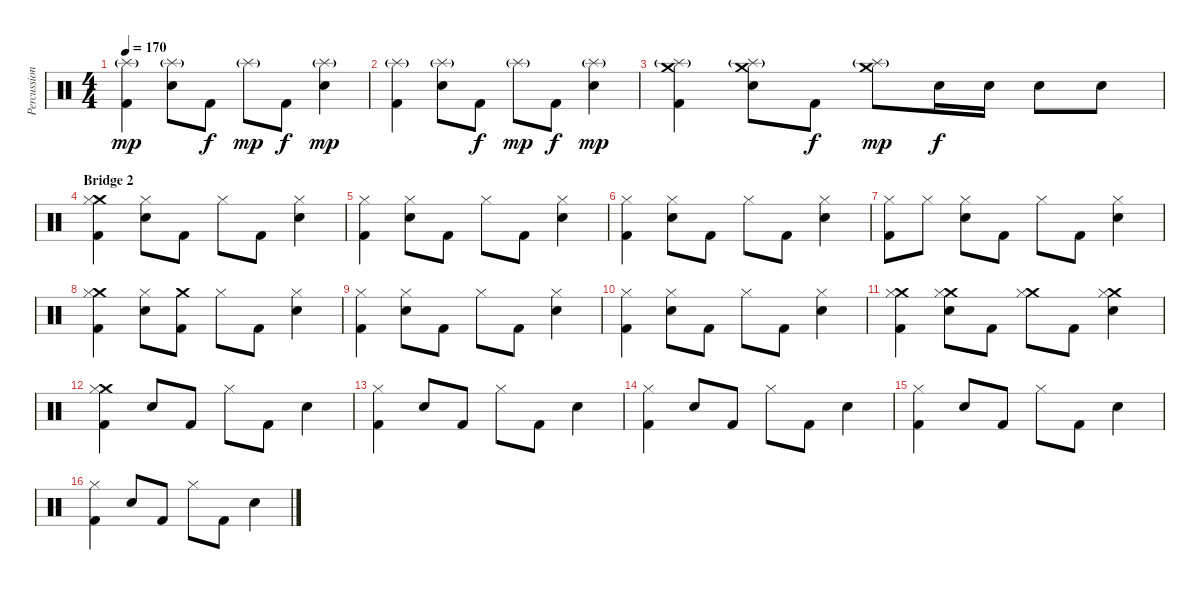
\track ("Percussions" "Percussion") {instrument percussion}
\staff {score}
\articulation defaults
\ts (4 4)
\tempo 170
\clef neutral
\ks c
("Splash (hit)"{g} "Kick (hit) 2").4{dy mp} ("Splash (hit)"{g} "Electric Snare (hit)").8 "Kick (hit) 2".8{dy f} "Splash (hit)"{g}.8{dy mp} "Kick (hit) 2".8{dy f} ("Splash (hit)"{g} "Electric Snare (hit)").4{dy mp} |
("Splash (hit)"{g} "Kick (hit) 2").4 ("Splash (hit)"{g} "Electric Snare (hit)").8 "Kick (hit) 2".8{dy f} "Splash (hit)"{g}.8{dy mp} "Kick (hit) 2".8{dy f} ("Splash (hit)"{g} "Electric Snare (hit)").4{dy mp} |
("Crash medium (hit)" "Splash (hit)"{g} "Kick (hit) 2").4 ("Crash medium (hit)" "Splash (hit)"{g} "Electric Snare (hit)").8 "Kick (hit) 2".8{dy f} ("Crash medium (hit)" "Splash (hit)"{g}).8{dy mp} "Electric Snare (hit)".16{dy f} "Electric Snare (hit)".16 "Electric Snare (hit)".8 "Electric Snare (hit)".8 |
\section ("" "Bridge 2")
("Crash medium (hit)" "Hi-Hat (closed)" "Kick (hit) 2").4 ("Hi-Hat (closed)" "Electric Snare (hit)").8 "Kick (hit) 2".8 "Hi-Hat (closed)".8 "Kick (hit) 2".8 ("Hi-Hat (closed)" "Electric Snare (hit)").4 |
("Hi-Hat (closed)" "Kick (hit) 2").4 ("Hi-Hat (closed)" "Electric Snare (hit)").8 "Kick (hit) 2".8 "Hi-Hat (closed)".8 "Kick (hit) 2".8 ("Hi-Hat (closed)" "Electric Snare (hit)").4 |
("Hi-Hat (closed)" "Kick (hit) 2").4 ("Hi-Hat (closed)" "Electric Snare (hit)").8 "Kick (hit) 2".8 "Hi-Hat (closed)".8 "Kick (hit) 2".8 ("Hi-Hat (closed)" "Electric Snare (hit)").4 |
("Hi-Hat (closed)" "Kick (hit) 2").8 "Hi-Hat (closed)".8 ("Hi-Hat (closed)" "Electric Snare (hit)").8 "Kick (hit) 2".8 "Hi-Hat (closed)".8 "Kick (hit) 2".8 ("Hi-Hat (closed)" "Electric Snare (hit)").4 |
("Crash medium (hit)" "Hi-Hat (closed)" "Kick (hit) 2").4 ("Hi-Hat (closed)" "Electric Snare (hit)").8 ("Crash medium (hit)" "Kick (hit) 2").8 "Hi-Hat (closed)".8 "Kick (hit) 2".8 ("Hi-Hat (closed)" "Electric Snare (hit)").4 |
("Hi-Hat (closed)" "Kick (hit) 2").4 ("Hi-Hat (closed)" "Electric Snare (hit)").8 "Kick (hit) 2".8 "Hi-Hat (closed)".8 "Kick (hit) 2".8 ("Hi-Hat (closed)" "Electric Snare (hit)").4 |
("Hi-Hat (closed)" "Kick (hit) 2").4 ("Hi-Hat (closed)" "Electric Snare (hit)").8 "Kick (hit) 2".8 "Hi-Hat (closed)".8 "Kick (hit) 2".8 ("Hi-Hat (closed)" "Electric Snare (hit)").4 |
("Crash medium (hit)" "Hi-Hat (closed)" "Kick (hit) 2").4 ("Crash medium (hit)" "Hi-Hat (closed)" "Electric Snare (hit)").8 "Kick (hit) 2".8 ("Crash medium (hit)" "Hi-Hat (closed)").8 "Kick (hit) 2".8 ("Crash medium (hit)" "Hi-Hat (closed)" "Electric Snare (hit)").4 |
("Crash medium (hit)" "Hi-Hat (closed)" "Kick (hit) 2").4 "Electric Snare (hit)".8 "Kick (hit) 2".8 "Hi-Hat (closed)".8 "Kick (hit) 2".8 "Electric Snare (hit)".4 |
("Hi-Hat (closed)" "Kick (hit) 2").4 "Electric Snare (hit)".8 "Kick (hit) 2".8 "Hi-Hat (closed)".8 "Kick (hit) 2".8 "Electric Snare (hit)".4 |
("Hi-Hat (closed)" "Kick (hit) 2").4 "Electric Snare (hit)".8 "Kick (hit) 2".8 "Hi-Hat (closed)".8 "Kick (hit) 2".8 "Electric Snare (hit)".4 |
("Hi-Hat (closed)" "Kick (hit) 2").4 "Electric Snare (hit)".8 "Kick (hit) 2".8 "Hi-Hat (closed)".8 "Kick (hit) 2".8 "Electric Snare (hit)".4 |
("Hi-Hat (closed)" "Kick (hit) 2").4 "Electric Snare (hit)".8 "Kick (hit) 2".8 "Hi-Hat (closed)".8 "Kick (hit) 2".8 "Electric Snare (hit)".4
